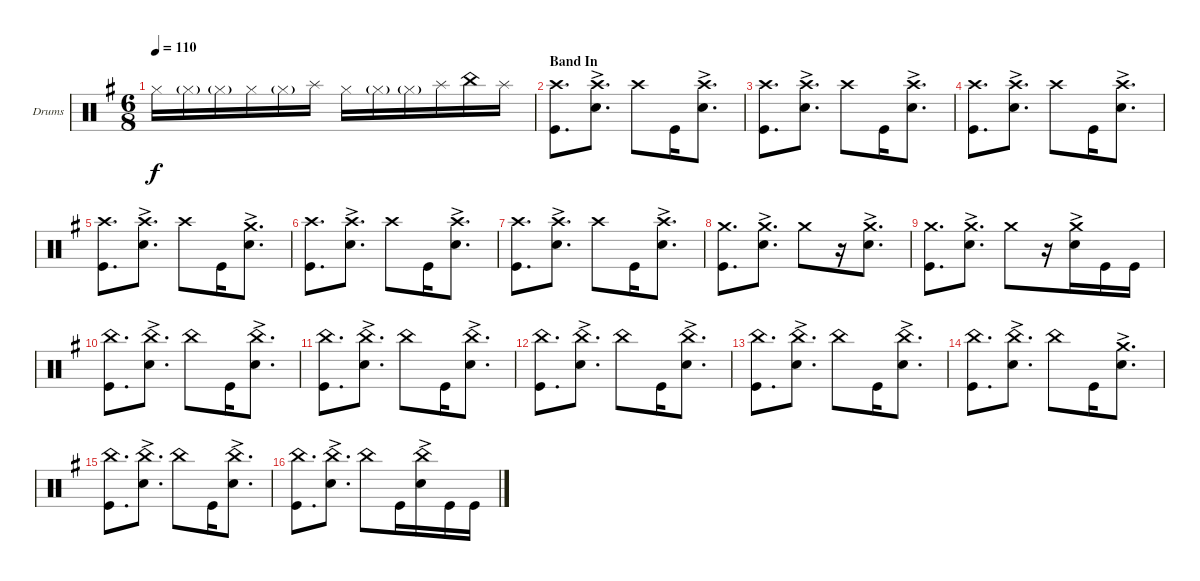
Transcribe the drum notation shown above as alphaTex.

\bracketExtendMode groupsimilarinstruments
\firstSystemTrackNameOrientation horizontal
\otherSystemsTrackNameOrientation horizontal
\track ("Drumkit" "Drums") {instrument percussion}
\staff {score}
\articulation defaults
\ts (6 8)
\tempo 110
\clef neutral
\ks eminor "Hi-Hat (closed)".16{dy f} "Hi-Hat (closed)"{g}.16 "Hi-Hat (closed)"{g}.16 "Hi-Hat (closed)".16 "Hi-Hat (closed)"{g}.16 "Splash (hit)".16 "Hi-Hat (closed)".16 "Hi-Hat (closed)"{g}.16 "Hi-Hat (closed)"{g}.16 "Splash (hit)".16 "China (hit)".16 "Splash (hit)".16
|
\section ("" "Band In")
("Kick (hit)" "Crash high (hit)").8{d} ("Snare (hit) 2"{ac} "Crash high (hit)").8{d} "Crash high (hit)".8 "Kick (hit)".16 ("Snare (hit) 2"{ac} "Crash high (hit)").8{d} |
("Kick (hit)" "Crash high (hit)").8{d} ("Snare (hit) 2"{ac} "Crash high (hit)").8{d} "Crash high (hit)".8 "Kick (hit)".16 ("Snare (hit) 2"{ac} "Crash high (hit)").8{d} |
("Kick (hit)" "Crash high (hit)").8{d} ("Snare (hit) 2"{ac} "Crash high (hit)").8{d} "Crash high (hit)".8 "Kick (hit)".16 ("Snare (hit) 2"{ac} "Crash high (hit)").8{d} |
("Kick (hit)" "Crash high (hit)").8{d} ("Snare (hit) 2"{ac} "Crash high (hit)").8{d} "Crash high (hit)".8 "Kick (hit)".16 ("Snare (hit) 2"{ac} "Crash medium (hit)").8{d} |
("Kick (hit)" "Crash high (hit)").8{d} ("Snare (hit) 2"{ac} "Crash high (hit)").8{d} "Crash high (hit)".8 "Kick (hit)".16 ("Snare (hit) 2"{ac} "Crash high (hit)").8{d} |
("Kick (hit)" "Crash high (hit)").8{d} ("Snare (hit) 2"{ac} "Crash high (hit)").8{d} "Crash high (hit)".8 "Kick (hit)".16 ("Snare (hit) 2"{ac} "Crash high (hit)").8{d} |
("Kick (hit)" "Crash medium (hit)").8{d} ("Snare (hit) 2"{ac} "Crash medium (hit)").8{d} "Crash medium (hit)".8 r.16 ("Snare (hit) 2"{ac} "Crash medium (hit)").8{d} |
("Kick (hit)" "Crash medium (hit)").8{d} ("Snare (hit) 2"{ac} "Crash medium (hit)").8{d} "Crash medium (hit)".8 r.16 ("Snare (hit) 2"{ac} "Crash medium (hit)").16 "Kick (hit)".16 "Kick (hit)".16 |
("Kick (hit)" "China (hit)").8{d} ("Snare (hit) 2"{ac} "China (hit)").8{d} "China (hit)".8 "Kick (hit)".16 ("Snare (hit) 2"{ac} "China (hit)").8{d} |
("Kick (hit)" "China (hit)").8{d} ("Snare (hit) 2"{ac} "China (hit)").8{d} "China (hit)".8 "Kick (hit)".16 ("Snare (hit) 2"{ac} "China (hit)").8{d} |
("Kick (hit)" "China (hit)").8{d} ("Snare (hit) 2"{ac} "China (hit)").8{d} "China (hit)".8 "Kick (hit)".16 ("Snare (hit) 2"{ac} "China (hit)").8{d} |
("Kick (hit)" "China (hit)").8{d} ("Snare (hit) 2"{ac} "China (hit)").8{d} "China (hit)".8 "Kick (hit)".16 ("Snare (hit) 2"{ac} "China (hit)").8{d} |
("Kick (hit)" "China (hit)").8{d} ("Snare (hit) 2"{ac} "China (hit)").8{d} "China (hit)".8 "Kick (hit)".16 ("Snare (hit) 2"{ac} "Crash medium (hit)").8{d} |
("Kick (hit)" "China (hit)").8{d} ("Snare (hit) 2"{ac} "China (hit)").8{d} "China (hit)".8 "Kick (hit)".16 ("Snare (hit) 2"{ac} "China (hit)").8{d} |
("Kick (hit)" "China (hit)").8{d} ("Snare (hit) 2"{ac} "China (hit)").8{d} "China (hit)".8 "Kick (hit)".16 ("Snare (hit) 2"{ac} "China (hit)").16 "Kick (hit)".16 "Kick (hit)".16
